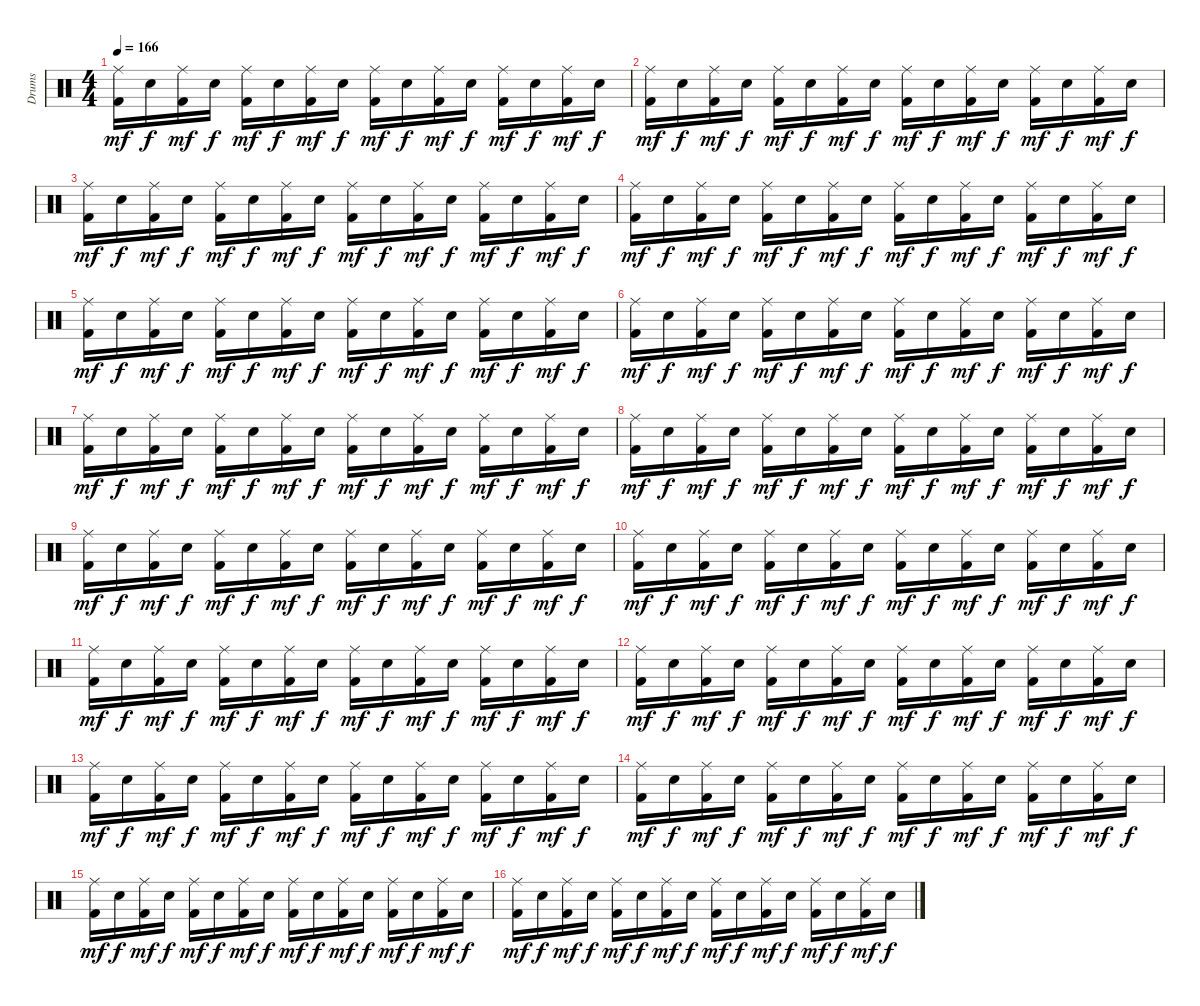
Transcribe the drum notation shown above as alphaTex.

\track ("Drums" "Drums") {instrument percussion}
\staff {score}
\articulation defaults
\ts (4 4)
\tempo 166
\clef neutral
\ks c
("Ride (middle)" "Kick (hit) 2").16{dy mf} "Snare (hit) 2".16{dy f} ("Ride (middle)" "Kick (hit) 2").16{dy mf} "Snare (hit) 2".16{dy f} ("Ride (middle)" "Kick (hit) 2").16{dy mf} "Snare (hit) 2".16{dy f} ("Ride (middle)" "Kick (hit) 2").16{dy mf} "Snare (hit) 2".16{dy f} ("Ride (middle)" "Kick (hit) 2").16{dy mf} "Snare (hit) 2".16{dy f} ("Ride (middle)" "Kick (hit) 2").16{dy mf} "Snare (hit) 2".16{dy f} ("Ride (middle)" "Kick (hit) 2").16{dy mf} "Snare (hit) 2".16{dy f} ("Ride (middle)" "Kick (hit) 2").16{dy mf} "Snare (hit) 2".16{dy f} |
("Ride (middle)" "Kick (hit) 2").16{dy mf} "Snare (hit) 2".16{dy f} ("Ride (middle)" "Kick (hit) 2").16{dy mf} "Snare (hit) 2".16{dy f} ("Ride (middle)" "Kick (hit) 2").16{dy mf} "Snare (hit) 2".16{dy f} ("Ride (middle)" "Kick (hit) 2").16{dy mf} "Snare (hit) 2".16{dy f} ("Ride (middle)" "Kick (hit) 2").16{dy mf} "Snare (hit) 2".16{dy f} ("Ride (middle)" "Kick (hit) 2").16{dy mf} "Snare (hit) 2".16{dy f} ("Ride (middle)" "Kick (hit) 2").16{dy mf} "Snare (hit) 2".16{dy f} ("Ride (middle)" "Kick (hit) 2").16{dy mf} "Snare (hit) 2".16{dy f} |
("Ride (middle)" "Kick (hit) 2").16{dy mf} "Snare (hit) 2".16{dy f} ("Ride (middle)" "Kick (hit) 2").16{dy mf} "Snare (hit) 2".16{dy f} ("Ride (middle)" "Kick (hit) 2").16{dy mf} "Snare (hit) 2".16{dy f} ("Ride (middle)" "Kick (hit) 2").16{dy mf} "Snare (hit) 2".16{dy f} ("Ride (middle)" "Kick (hit) 2").16{dy mf} "Snare (hit) 2".16{dy f} ("Ride (middle)" "Kick (hit) 2").16{dy mf} "Snare (hit) 2".16{dy f} ("Ride (middle)" "Kick (hit) 2").16{dy mf} "Snare (hit) 2".16{dy f} ("Ride (middle)" "Kick (hit) 2").16{dy mf} "Snare (hit) 2".16{dy f} |
("Ride (middle)" "Kick (hit) 2").16{dy mf} "Snare (hit) 2".16{dy f} ("Ride (middle)" "Kick (hit) 2").16{dy mf} "Snare (hit) 2".16{dy f} ("Ride (middle)" "Kick (hit) 2").16{dy mf} "Snare (hit) 2".16{dy f} ("Ride (middle)" "Kick (hit) 2").16{dy mf} "Snare (hit) 2".16{dy f} ("Ride (middle)" "Kick (hit) 2").16{dy mf} "Snare (hit) 2".16{dy f} ("Ride (middle)" "Kick (hit) 2").16{dy mf} "Snare (hit) 2".16{dy f} ("Ride (middle)" "Kick (hit) 2").16{dy mf} "Snare (hit) 2".16{dy f} ("Ride (middle)" "Kick (hit) 2").16{dy mf} "Snare (hit) 2".16{dy f} |
("Ride (middle)" "Kick (hit) 2").16{dy mf} "Snare (hit) 2".16{dy f} ("Ride (middle)" "Kick (hit) 2").16{dy mf} "Snare (hit) 2".16{dy f} ("Ride (middle)" "Kick (hit) 2").16{dy mf} "Snare (hit) 2".16{dy f} ("Ride (middle)" "Kick (hit) 2").16{dy mf} "Snare (hit) 2".16{dy f} ("Ride (middle)" "Kick (hit) 2").16{dy mf} "Snare (hit) 2".16{dy f} ("Ride (middle)" "Kick (hit) 2").16{dy mf} "Snare (hit) 2".16{dy f} ("Ride (middle)" "Kick (hit) 2").16{dy mf} "Snare (hit) 2".16{dy f} ("Ride (middle)" "Kick (hit) 2").16{dy mf} "Snare (hit) 2".16{dy f} |
("Ride (middle)" "Kick (hit) 2").16{dy mf} "Snare (hit) 2".16{dy f} ("Ride (middle)" "Kick (hit) 2").16{dy mf} "Snare (hit) 2".16{dy f} ("Ride (middle)" "Kick (hit) 2").16{dy mf} "Snare (hit) 2".16{dy f} ("Ride (middle)" "Kick (hit) 2").16{dy mf} "Snare (hit) 2".16{dy f} ("Ride (middle)" "Kick (hit) 2").16{dy mf} "Snare (hit) 2".16{dy f} ("Ride (middle)" "Kick (hit) 2").16{dy mf} "Snare (hit) 2".16{dy f} ("Ride (middle)" "Kick (hit) 2").16{dy mf} "Snare (hit) 2".16{dy f} ("Ride (middle)" "Kick (hit) 2").16{dy mf} "Snare (hit) 2".16{dy f} |
("Ride (middle)" "Kick (hit) 2").16{dy mf} "Snare (hit) 2".16{dy f} ("Ride (middle)" "Kick (hit) 2").16{dy mf} "Snare (hit) 2".16{dy f} ("Ride (middle)" "Kick (hit) 2").16{dy mf} "Snare (hit) 2".16{dy f} ("Ride (middle)" "Kick (hit) 2").16{dy mf} "Snare (hit) 2".16{dy f} ("Ride (middle)" "Kick (hit) 2").16{dy mf} "Snare (hit) 2".16{dy f} ("Ride (middle)" "Kick (hit) 2").16{dy mf} "Snare (hit) 2".16{dy f} ("Ride (middle)" "Kick (hit) 2").16{dy mf} "Snare (hit) 2".16{dy f} ("Ride (middle)" "Kick (hit) 2").16{dy mf} "Snare (hit) 2".16{dy f} |
("Ride (middle)" "Kick (hit) 2").16{dy mf} "Snare (hit) 2".16{dy f} ("Ride (middle)" "Kick (hit) 2").16{dy mf} "Snare (hit) 2".16{dy f} ("Ride (middle)" "Kick (hit) 2").16{dy mf} "Snare (hit) 2".16{dy f} ("Ride (middle)" "Kick (hit) 2").16{dy mf} "Snare (hit) 2".16{dy f} ("Ride (middle)" "Kick (hit) 2").16{dy mf} "Snare (hit) 2".16{dy f} ("Ride (middle)" "Kick (hit) 2").16{dy mf} "Snare (hit) 2".16{dy f} ("Ride (middle)" "Kick (hit) 2").16{dy mf} "Snare (hit) 2".16{dy f} ("Ride (middle)" "Kick (hit) 2").16{dy mf} "Snare (hit) 2".16{dy f} |
("Ride (middle)" "Kick (hit) 2").16{dy mf} "Snare (hit) 2".16{dy f} ("Ride (middle)" "Kick (hit) 2").16{dy mf} "Snare (hit) 2".16{dy f} ("Ride (middle)" "Kick (hit) 2").16{dy mf} "Snare (hit) 2".16{dy f} ("Ride (middle)" "Kick (hit) 2").16{dy mf} "Snare (hit) 2".16{dy f} ("Ride (middle)" "Kick (hit) 2").16{dy mf} "Snare (hit) 2".16{dy f} ("Ride (middle)" "Kick (hit) 2").16{dy mf} "Snare (hit) 2".16{dy f} ("Ride (middle)" "Kick (hit) 2").16{dy mf} "Snare (hit) 2".16{dy f} ("Ride (middle)" "Kick (hit) 2").16{dy mf} "Snare (hit) 2".16{dy f} |
("Ride (middle)" "Kick (hit) 2").16{dy mf} "Snare (hit) 2".16{dy f} ("Ride (middle)" "Kick (hit) 2").16{dy mf} "Snare (hit) 2".16{dy f} ("Ride (middle)" "Kick (hit) 2").16{dy mf} "Snare (hit) 2".16{dy f} ("Ride (middle)" "Kick (hit) 2").16{dy mf} "Snare (hit) 2".16{dy f} ("Ride (middle)" "Kick (hit) 2").16{dy mf} "Snare (hit) 2".16{dy f} ("Ride (middle)" "Kick (hit) 2").16{dy mf} "Snare (hit) 2".16{dy f} ("Ride (middle)" "Kick (hit) 2").16{dy mf} "Snare (hit) 2".16{dy f} ("Ride (middle)" "Kick (hit) 2").16{dy mf} "Snare (hit) 2".16{dy f} |
("Ride (middle)" "Kick (hit) 2").16{dy mf} "Snare (hit) 2".16{dy f} ("Ride (middle)" "Kick (hit) 2").16{dy mf} "Snare (hit) 2".16{dy f} ("Ride (middle)" "Kick (hit) 2").16{dy mf} "Snare (hit) 2".16{dy f} ("Ride (middle)" "Kick (hit) 2").16{dy mf} "Snare (hit) 2".16{dy f} ("Ride (middle)" "Kick (hit) 2").16{dy mf} "Snare (hit) 2".16{dy f} ("Ride (middle)" "Kick (hit) 2").16{dy mf} "Snare (hit) 2".16{dy f} ("Ride (middle)" "Kick (hit) 2").16{dy mf} "Snare (hit) 2".16{dy f} ("Ride (middle)" "Kick (hit) 2").16{dy mf} "Snare (hit) 2".16{dy f} |
("Ride (middle)" "Kick (hit) 2").16{dy mf} "Snare (hit) 2".16{dy f} ("Ride (middle)" "Kick (hit) 2").16{dy mf} "Snare (hit) 2".16{dy f} ("Ride (middle)" "Kick (hit) 2").16{dy mf} "Snare (hit) 2".16{dy f} ("Ride (middle)" "Kick (hit) 2").16{dy mf} "Snare (hit) 2".16{dy f} ("Ride (middle)" "Kick (hit) 2").16{dy mf} "Snare (hit) 2".16{dy f} ("Ride (middle)" "Kick (hit) 2").16{dy mf} "Snare (hit) 2".16{dy f} ("Ride (middle)" "Kick (hit) 2").16{dy mf} "Snare (hit) 2".16{dy f} ("Ride (middle)" "Kick (hit) 2").16{dy mf} "Snare (hit) 2".16{dy f} |
("Ride (middle)" "Kick (hit) 2").16{dy mf} "Snare (hit) 2".16{dy f} ("Ride (middle)" "Kick (hit) 2").16{dy mf} "Snare (hit) 2".16{dy f} ("Ride (middle)" "Kick (hit) 2").16{dy mf} "Snare (hit) 2".16{dy f} ("Ride (middle)" "Kick (hit) 2").16{dy mf} "Snare (hit) 2".16{dy f} ("Ride (middle)" "Kick (hit) 2").16{dy mf} "Snare (hit) 2".16{dy f} ("Ride (middle)" "Kick (hit) 2").16{dy mf} "Snare (hit) 2".16{dy f} ("Ride (middle)" "Kick (hit) 2").16{dy mf} "Snare (hit) 2".16{dy f} ("Ride (middle)" "Kick (hit) 2").16{dy mf} "Snare (hit) 2".16{dy f} |
("Ride (middle)" "Kick (hit) 2").16{dy mf} "Snare (hit) 2".16{dy f} ("Ride (middle)" "Kick (hit) 2").16{dy mf} "Snare (hit) 2".16{dy f} ("Ride (middle)" "Kick (hit) 2").16{dy mf} "Snare (hit) 2".16{dy f} ("Ride (middle)" "Kick (hit) 2").16{dy mf} "Snare (hit) 2".16{dy f} ("Ride (middle)" "Kick (hit) 2").16{dy mf} "Snare (hit) 2".16{dy f} ("Ride (middle)" "Kick (hit) 2").16{dy mf} "Snare (hit) 2".16{dy f} ("Ride (middle)" "Kick (hit) 2").16{dy mf} "Snare (hit) 2".16{dy f} ("Ride (middle)" "Kick (hit) 2").16{dy mf} "Snare (hit) 2".16{dy f} |
("Ride (middle)" "Kick (hit) 2").16{dy mf} "Snare (hit) 2".16{dy f} ("Ride (middle)" "Kick (hit) 2").16{dy mf} "Snare (hit) 2".16{dy f} ("Ride (middle)" "Kick (hit) 2").16{dy mf} "Snare (hit) 2".16{dy f} ("Ride (middle)" "Kick (hit) 2").16{dy mf} "Snare (hit) 2".16{dy f} ("Ride (middle)" "Kick (hit) 2").16{dy mf} "Snare (hit) 2".16{dy f} ("Ride (middle)" "Kick (hit) 2").16{dy mf} "Snare (hit) 2".16{dy f} ("Ride (middle)" "Kick (hit) 2").16{dy mf} "Snare (hit) 2".16{dy f} ("Ride (middle)" "Kick (hit) 2").16{dy mf} "Snare (hit) 2".16{dy f} |
("Ride (middle)" "Kick (hit) 2").16{dy mf} "Snare (hit) 2".16{dy f} ("Ride (middle)" "Kick (hit) 2").16{dy mf} "Snare (hit) 2".16{dy f} ("Ride (middle)" "Kick (hit) 2").16{dy mf} "Snare (hit) 2".16{dy f} ("Ride (middle)" "Kick (hit) 2").16{dy mf} "Snare (hit) 2".16{dy f} ("Ride (middle)" "Kick (hit) 2").16{dy mf} "Snare (hit) 2".16{dy f} ("Ride (middle)" "Kick (hit) 2").16{dy mf} "Snare (hit) 2".16{dy f} ("Ride (middle)" "Kick (hit) 2").16{dy mf} "Snare (hit) 2".16{dy f} ("Ride (middle)" "Kick (hit) 2").16{dy mf} "Snare (hit) 2".16{dy f}
